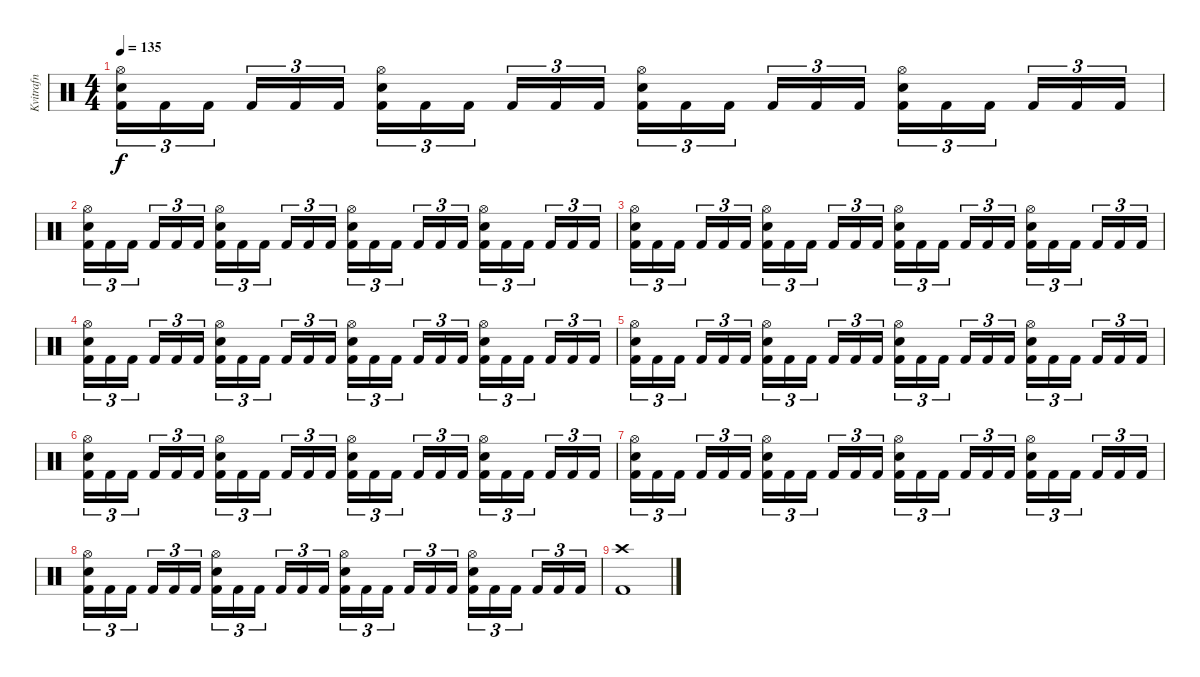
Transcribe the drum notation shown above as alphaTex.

\track ("Kvitrafn" "Kvitrafn") {instrument percussion}
\staff {score}
\articulation defaults
\ts (4 4)
\tempo 135
\clef neutral
\ks c
("Hi-Hat (open)" "Electric Snare (hit)" "Kick (hit) 2").16{tu (3 2) dy f} "Kick (hit) 2".16{tu (3 2)} "Kick (hit) 2".16{tu (3 2) beam splitsecondary} "Kick (hit) 2".16{tu (3 2)} "Kick (hit) 2".16{tu (3 2)} "Kick (hit) 2".16{tu (3 2)} ("Hi-Hat (open)" "Electric Snare (hit)" "Kick (hit) 2").16{tu (3 2)} "Kick (hit) 2".16{tu (3 2)} "Kick (hit) 2".16{tu (3 2) beam splitsecondary} "Kick (hit) 2".16{tu (3 2)} "Kick (hit) 2".16{tu (3 2)} "Kick (hit) 2".16{tu (3 2)} ("Hi-Hat (open)" "Electric Snare (hit)" "Kick (hit) 2").16{tu (3 2)} "Kick (hit) 2".16{tu (3 2)} "Kick (hit) 2".16{tu (3 2) beam splitsecondary} "Kick (hit) 2".16{tu (3 2)} "Kick (hit) 2".16{tu (3 2)} "Kick (hit) 2".16{tu (3 2)} ("Hi-Hat (open)" "Electric Snare (hit)" "Kick (hit) 2").16{tu (3 2)} "Kick (hit) 2".16{tu (3 2)} "Kick (hit) 2".16{tu (3 2) beam splitsecondary} "Kick (hit) 2".16{tu (3 2)} "Kick (hit) 2".16{tu (3 2)} "Kick (hit) 2".16{tu (3 2)} |
("Hi-Hat (open)" "Electric Snare (hit)" "Kick (hit) 2").16{tu (3 2)} "Kick (hit) 2".16{tu (3 2)} "Kick (hit) 2".16{tu (3 2) beam splitsecondary} "Kick (hit) 2".16{tu (3 2)} "Kick (hit) 2".16{tu (3 2)} "Kick (hit) 2".16{tu (3 2)} ("Hi-Hat (open)" "Electric Snare (hit)" "Kick (hit) 2").16{tu (3 2)} "Kick (hit) 2".16{tu (3 2)} "Kick (hit) 2".16{tu (3 2) beam splitsecondary} "Kick (hit) 2".16{tu (3 2)} "Kick (hit) 2".16{tu (3 2)} "Kick (hit) 2".16{tu (3 2)} ("Hi-Hat (open)" "Electric Snare (hit)" "Kick (hit) 2").16{tu (3 2)} "Kick (hit) 2".16{tu (3 2)} "Kick (hit) 2".16{tu (3 2) beam splitsecondary} "Kick (hit) 2".16{tu (3 2)} "Kick (hit) 2".16{tu (3 2)} "Kick (hit) 2".16{tu (3 2)} ("Hi-Hat (open)" "Electric Snare (hit)" "Kick (hit) 2").16{tu (3 2)} "Kick (hit) 2".16{tu (3 2)} "Kick (hit) 2".16{tu (3 2) beam splitsecondary} "Kick (hit) 2".16{tu (3 2)} "Kick (hit) 2".16{tu (3 2)} "Kick (hit) 2".16{tu (3 2)} |
("Hi-Hat (open)" "Electric Snare (hit)" "Kick (hit) 2").16{tu (3 2)} "Kick (hit) 2".16{tu (3 2)} "Kick (hit) 2".16{tu (3 2) beam splitsecondary} "Kick (hit) 2".16{tu (3 2)} "Kick (hit) 2".16{tu (3 2)} "Kick (hit) 2".16{tu (3 2)} ("Hi-Hat (open)" "Electric Snare (hit)" "Kick (hit) 2").16{tu (3 2)} "Kick (hit) 2".16{tu (3 2)} "Kick (hit) 2".16{tu (3 2) beam splitsecondary} "Kick (hit) 2".16{tu (3 2)} "Kick (hit) 2".16{tu (3 2)} "Kick (hit) 2".16{tu (3 2)} ("Hi-Hat (open)" "Electric Snare (hit)" "Kick (hit) 2").16{tu (3 2)} "Kick (hit) 2".16{tu (3 2)} "Kick (hit) 2".16{tu (3 2) beam splitsecondary} "Kick (hit) 2".16{tu (3 2)} "Kick (hit) 2".16{tu (3 2)} "Kick (hit) 2".16{tu (3 2)} ("Hi-Hat (open)" "Electric Snare (hit)" "Kick (hit) 2").16{tu (3 2)} "Kick (hit) 2".16{tu (3 2)} "Kick (hit) 2".16{tu (3 2) beam splitsecondary} "Kick (hit) 2".16{tu (3 2)} "Kick (hit) 2".16{tu (3 2)} "Kick (hit) 2".16{tu (3 2)} |
("Hi-Hat (open)" "Electric Snare (hit)" "Kick (hit) 2").16{tu (3 2)} "Kick (hit) 2".16{tu (3 2)} "Kick (hit) 2".16{tu (3 2) beam splitsecondary} "Kick (hit) 2".16{tu (3 2)} "Kick (hit) 2".16{tu (3 2)} "Kick (hit) 2".16{tu (3 2)} ("Hi-Hat (open)" "Electric Snare (hit)" "Kick (hit) 2").16{tu (3 2)} "Kick (hit) 2".16{tu (3 2)} "Kick (hit) 2".16{tu (3 2) beam splitsecondary} "Kick (hit) 2".16{tu (3 2)} "Kick (hit) 2".16{tu (3 2)} "Kick (hit) 2".16{tu (3 2)} ("Hi-Hat (open)" "Electric Snare (hit)" "Kick (hit) 2").16{tu (3 2)} "Kick (hit) 2".16{tu (3 2)} "Kick (hit) 2".16{tu (3 2) beam splitsecondary} "Kick (hit) 2".16{tu (3 2)} "Kick (hit) 2".16{tu (3 2)} "Kick (hit) 2".16{tu (3 2)} ("Hi-Hat (open)" "Electric Snare (hit)" "Kick (hit) 2").16{tu (3 2)} "Kick (hit) 2".16{tu (3 2)} "Kick (hit) 2".16{tu (3 2) beam splitsecondary} "Kick (hit) 2".16{tu (3 2)} "Kick (hit) 2".16{tu (3 2)} "Kick (hit) 2".16{tu (3 2)} |
("Hi-Hat (open)" "Electric Snare (hit)" "Kick (hit) 2").16{tu (3 2)} "Kick (hit) 2".16{tu (3 2)} "Kick (hit) 2".16{tu (3 2) beam splitsecondary} "Kick (hit) 2".16{tu (3 2)} "Kick (hit) 2".16{tu (3 2)} "Kick (hit) 2".16{tu (3 2)} ("Hi-Hat (open)" "Electric Snare (hit)" "Kick (hit) 2").16{tu (3 2)} "Kick (hit) 2".16{tu (3 2)} "Kick (hit) 2".16{tu (3 2) beam splitsecondary} "Kick (hit) 2".16{tu (3 2)} "Kick (hit) 2".16{tu (3 2)} "Kick (hit) 2".16{tu (3 2)} ("Hi-Hat (open)" "Electric Snare (hit)" "Kick (hit) 2").16{tu (3 2)} "Kick (hit) 2".16{tu (3 2)} "Kick (hit) 2".16{tu (3 2) beam splitsecondary} "Kick (hit) 2".16{tu (3 2)} "Kick (hit) 2".16{tu (3 2)} "Kick (hit) 2".16{tu (3 2)} ("Hi-Hat (open)" "Electric Snare (hit)" "Kick (hit) 2").16{tu (3 2)} "Kick (hit) 2".16{tu (3 2)} "Kick (hit) 2".16{tu (3 2) beam splitsecondary} "Kick (hit) 2".16{tu (3 2)} "Kick (hit) 2".16{tu (3 2)} "Kick (hit) 2".16{tu (3 2)} |
("Hi-Hat (open)" "Electric Snare (hit)" "Kick (hit) 2").16{tu (3 2)} "Kick (hit) 2".16{tu (3 2)} "Kick (hit) 2".16{tu (3 2) beam splitsecondary} "Kick (hit) 2".16{tu (3 2)} "Kick (hit) 2".16{tu (3 2)} "Kick (hit) 2".16{tu (3 2)} ("Hi-Hat (open)" "Electric Snare (hit)" "Kick (hit) 2").16{tu (3 2)} "Kick (hit) 2".16{tu (3 2)} "Kick (hit) 2".16{tu (3 2) beam splitsecondary} "Kick (hit) 2".16{tu (3 2)} "Kick (hit) 2".16{tu (3 2)} "Kick (hit) 2".16{tu (3 2)} ("Hi-Hat (open)" "Electric Snare (hit)" "Kick (hit) 2").16{tu (3 2)} "Kick (hit) 2".16{tu (3 2)} "Kick (hit) 2".16{tu (3 2) beam splitsecondary} "Kick (hit) 2".16{tu (3 2)} "Kick (hit) 2".16{tu (3 2)} "Kick (hit) 2".16{tu (3 2)} ("Hi-Hat (open)" "Electric Snare (hit)" "Kick (hit) 2").16{tu (3 2)} "Kick (hit) 2".16{tu (3 2)} "Kick (hit) 2".16{tu (3 2) beam splitsecondary} "Kick (hit) 2".16{tu (3 2)} "Kick (hit) 2".16{tu (3 2)} "Kick (hit) 2".16{tu (3 2)} |
("Hi-Hat (open)" "Electric Snare (hit)" "Kick (hit) 2").16{tu (3 2)} "Kick (hit) 2".16{tu (3 2)} "Kick (hit) 2".16{tu (3 2) beam splitsecondary} "Kick (hit) 2".16{tu (3 2)} "Kick (hit) 2".16{tu (3 2)} "Kick (hit) 2".16{tu (3 2)} ("Hi-Hat (open)" "Electric Snare (hit)" "Kick (hit) 2").16{tu (3 2)} "Kick (hit) 2".16{tu (3 2)} "Kick (hit) 2".16{tu (3 2) beam splitsecondary} "Kick (hit) 2".16{tu (3 2)} "Kick (hit) 2".16{tu (3 2)} "Kick (hit) 2".16{tu (3 2)} ("Hi-Hat (open)" "Electric Snare (hit)" "Kick (hit) 2").16{tu (3 2)} "Kick (hit) 2".16{tu (3 2)} "Kick (hit) 2".16{tu (3 2) beam splitsecondary} "Kick (hit) 2".16{tu (3 2)} "Kick (hit) 2".16{tu (3 2)} "Kick (hit) 2".16{tu (3 2)} ("Hi-Hat (open)" "Electric Snare (hit)" "Kick (hit) 2").16{tu (3 2)} "Kick (hit) 2".16{tu (3 2)} "Kick (hit) 2".16{tu (3 2) beam splitsecondary} "Kick (hit) 2".16{tu (3 2)} "Kick (hit) 2".16{tu (3 2)} "Kick (hit) 2".16{tu (3 2)} |
("Hi-Hat (open)" "Electric Snare (hit)" "Kick (hit) 2").16{tu (3 2)} "Kick (hit) 2".16{tu (3 2)} "Kick (hit) 2".16{tu (3 2) beam splitsecondary} "Kick (hit) 2".16{tu (3 2)} "Kick (hit) 2".16{tu (3 2)} "Kick (hit) 2".16{tu (3 2)} ("Hi-Hat (open)" "Electric Snare (hit)" "Kick (hit) 2").16{tu (3 2)} "Kick (hit) 2".16{tu (3 2)} "Kick (hit) 2".16{tu (3 2) beam splitsecondary} "Kick (hit) 2".16{tu (3 2)} "Kick (hit) 2".16{tu (3 2)} "Kick (hit) 2".16{tu (3 2)} ("Hi-Hat (open)" "Electric Snare (hit)" "Kick (hit) 2").16{tu (3 2)} "Kick (hit) 2".16{tu (3 2)} "Kick (hit) 2".16{tu (3 2) beam splitsecondary} "Kick (hit) 2".16{tu (3 2)} "Kick (hit) 2".16{tu (3 2)} "Kick (hit) 2".16{tu (3 2)} ("Hi-Hat (open)" "Electric Snare (hit)" "Kick (hit) 2").16{tu (3 2)} "Kick (hit) 2".16{tu (3 2)} "Kick (hit) 2".16{tu (3 2) beam splitsecondary} "Kick (hit) 2".16{tu (3 2)} "Kick (hit) 2".16{tu (3 2)} "Kick (hit) 2".16{tu (3 2)} |
("Crash high (hit)" "Kick (hit) 2").1
